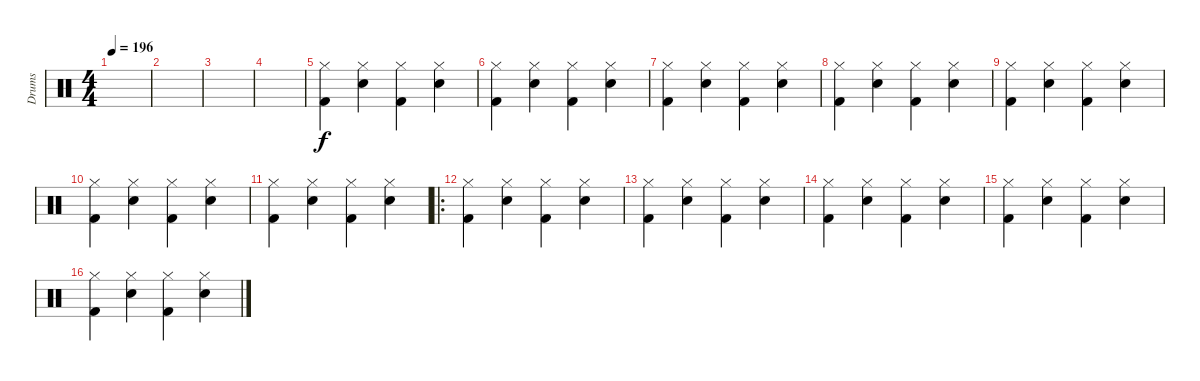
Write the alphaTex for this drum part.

\track ("Drums" "Drums") {instrument percussion}
\staff {score}
\articulation defaults
\ts (4 4)
\tempo 196
\clef neutral
\ks c
|
|
|
|
("Hi-Hat (closed)" "Kick (hit) 2").4 ("Hi-Hat (closed)" "Snare (hit) 2").4 ("Hi-Hat (closed)" "Kick (hit) 2").4 ("Hi-Hat (closed)" "Snare (hit) 2").4 |
("Hi-Hat (closed)" "Kick (hit) 2").4 ("Hi-Hat (closed)" "Snare (hit) 2").4 ("Hi-Hat (closed)" "Kick (hit) 2").4 ("Hi-Hat (closed)" "Snare (hit) 2").4 |
("Hi-Hat (closed)" "Kick (hit) 2").4 ("Hi-Hat (closed)" "Snare (hit) 2").4 ("Hi-Hat (closed)" "Kick (hit) 2").4 ("Hi-Hat (closed)" "Snare (hit) 2").4 |
("Hi-Hat (closed)" "Kick (hit) 2").4 ("Hi-Hat (closed)" "Snare (hit) 2").4 ("Hi-Hat (closed)" "Kick (hit) 2").4 ("Hi-Hat (closed)" "Snare (hit) 2").4 |
("Hi-Hat (closed)" "Kick (hit) 2").4 ("Hi-Hat (closed)" "Snare (hit) 2").4 ("Hi-Hat (closed)" "Kick (hit) 2").4 ("Hi-Hat (closed)" "Snare (hit) 2").4 |
("Hi-Hat (closed)" "Kick (hit) 2").4 ("Hi-Hat (closed)" "Snare (hit) 2").4 ("Hi-Hat (closed)" "Kick (hit) 2").4 ("Hi-Hat (closed)" "Snare (hit) 2").4 |
("Hi-Hat (closed)" "Kick (hit) 2").4 ("Hi-Hat (closed)" "Snare (hit) 2").4 ("Hi-Hat (closed)" "Kick (hit) 2").4 ("Hi-Hat (closed)" "Snare (hit) 2").4 |
\ro
("Hi-Hat (closed)" "Kick (hit) 2").4 ("Hi-Hat (closed)" "Snare (hit) 2").4 ("Hi-Hat (closed)" "Kick (hit) 2").4 ("Hi-Hat (closed)" "Snare (hit) 2").4 |
("Hi-Hat (closed)" "Kick (hit) 2").4 ("Hi-Hat (closed)" "Snare (hit) 2").4 ("Hi-Hat (closed)" "Kick (hit) 2").4 ("Hi-Hat (closed)" "Snare (hit) 2").4 |
("Hi-Hat (closed)" "Kick (hit) 2").4 ("Hi-Hat (closed)" "Snare (hit) 2").4 ("Hi-Hat (closed)" "Kick (hit) 2").4 ("Hi-Hat (closed)" "Snare (hit) 2").4 |
("Hi-Hat (closed)" "Kick (hit) 2").4 ("Hi-Hat (closed)" "Snare (hit) 2").4 ("Hi-Hat (closed)" "Kick (hit) 2").4 ("Hi-Hat (closed)" "Snare (hit) 2").4 |
("Hi-Hat (closed)" "Kick (hit) 2").4 ("Hi-Hat (closed)" "Snare (hit) 2").4 ("Hi-Hat (closed)" "Kick (hit) 2").4 ("Hi-Hat (closed)" "Snare (hit) 2").4
